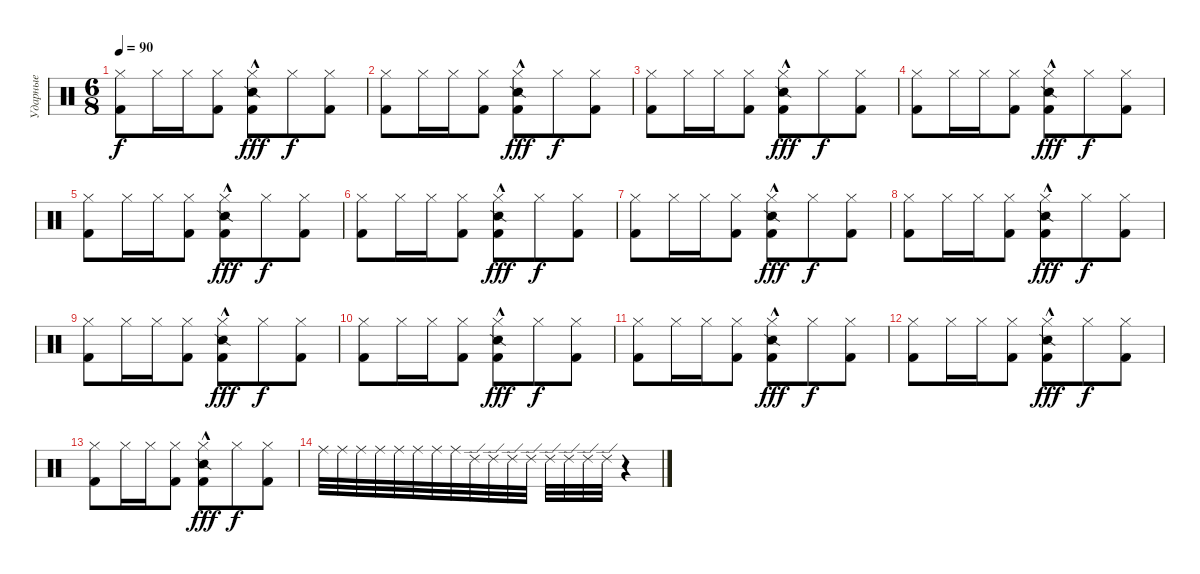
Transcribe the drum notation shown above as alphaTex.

\track ("Ударные" "Ударные") {instrument percussion}
\staff {score}
\articulation defaults
\ts (6 8)
\tempo 90
\clef neutral
\ks aminor
("Hi-Hat (closed)" "Kick (hit) 2").8{dy f} "Hi-Hat (closed)".16 "Hi-Hat (closed)".16 ("Hi-Hat (closed)" "Kick (hit) 2").8 ("Hi-Hat (closed)" "Snare (side stick) 2"{hac} "Kick (hit) 2").8{dy fff} "Hi-Hat (closed)".8{dy f} ("Hi-Hat (closed)" "Kick (hit) 2").8 |
("Hi-Hat (closed)" "Kick (hit) 2").8 "Hi-Hat (closed)".16 "Hi-Hat (closed)".16 ("Hi-Hat (closed)" "Kick (hit) 2").8 ("Hi-Hat (closed)" "Snare (side stick) 2"{hac} "Kick (hit) 2").8{dy fff} "Hi-Hat (closed)".8{dy f} ("Hi-Hat (closed)" "Kick (hit) 2").8 |
("Hi-Hat (closed)" "Kick (hit) 2").8 "Hi-Hat (closed)".16 "Hi-Hat (closed)".16 ("Hi-Hat (closed)" "Kick (hit) 2").8 ("Hi-Hat (closed)" "Snare (side stick) 2"{hac} "Kick (hit) 2").8{dy fff} "Hi-Hat (closed)".8{dy f} ("Hi-Hat (closed)" "Kick (hit) 2").8 |
("Hi-Hat (closed)" "Kick (hit) 2").8 "Hi-Hat (closed)".16 "Hi-Hat (closed)".16 ("Hi-Hat (closed)" "Kick (hit) 2").8 ("Hi-Hat (closed)" "Snare (side stick) 2"{hac} "Kick (hit) 2").8{dy fff} "Hi-Hat (closed)".8{dy f} ("Hi-Hat (closed)" "Kick (hit) 2").8 |
("Hi-Hat (closed)" "Kick (hit) 2").8 "Hi-Hat (closed)".16 "Hi-Hat (closed)".16 ("Hi-Hat (closed)" "Kick (hit) 2").8 ("Hi-Hat (closed)" "Snare (side stick) 2"{hac} "Kick (hit) 2").8{dy fff} "Hi-Hat (closed)".8{dy f} ("Hi-Hat (closed)" "Kick (hit) 2").8 |
("Hi-Hat (closed)" "Kick (hit) 2").8 "Hi-Hat (closed)".16 "Hi-Hat (closed)".16 ("Hi-Hat (closed)" "Kick (hit) 2").8 ("Hi-Hat (closed)" "Snare (side stick) 2"{hac} "Kick (hit) 2").8{dy fff} "Hi-Hat (closed)".8{dy f} ("Hi-Hat (closed)" "Kick (hit) 2").8 |
("Hi-Hat (closed)" "Kick (hit) 2").8 "Hi-Hat (closed)".16 "Hi-Hat (closed)".16 ("Hi-Hat (closed)" "Kick (hit) 2").8 ("Hi-Hat (closed)" "Snare (side stick) 2"{hac} "Kick (hit) 2").8{dy fff} "Hi-Hat (closed)".8{dy f} ("Hi-Hat (closed)" "Kick (hit) 2").8 |
("Hi-Hat (closed)" "Kick (hit) 2").8 "Hi-Hat (closed)".16 "Hi-Hat (closed)".16 ("Hi-Hat (closed)" "Kick (hit) 2").8 ("Hi-Hat (closed)" "Snare (side stick) 2"{hac} "Kick (hit) 2").8{dy fff} "Hi-Hat (closed)".8{dy f} ("Hi-Hat (closed)" "Kick (hit) 2").8 |
("Hi-Hat (closed)" "Kick (hit) 2").8 "Hi-Hat (closed)".16 "Hi-Hat (closed)".16 ("Hi-Hat (closed)" "Kick (hit) 2").8 ("Hi-Hat (closed)" "Snare (side stick) 2"{hac} "Kick (hit) 2").8{dy fff} "Hi-Hat (closed)".8{dy f} ("Hi-Hat (closed)" "Kick (hit) 2").8 |
("Hi-Hat (closed)" "Kick (hit) 2").8 "Hi-Hat (closed)".16 "Hi-Hat (closed)".16 ("Hi-Hat (closed)" "Kick (hit) 2").8 ("Hi-Hat (closed)" "Snare (side stick) 2"{hac} "Kick (hit) 2").8{dy fff} "Hi-Hat (closed)".8{dy f} ("Hi-Hat (closed)" "Kick (hit) 2").8 |
("Hi-Hat (closed)" "Kick (hit) 2").8 "Hi-Hat (closed)".16 "Hi-Hat (closed)".16 ("Hi-Hat (closed)" "Kick (hit) 2").8 ("Hi-Hat (closed)" "Snare (side stick) 2"{hac} "Kick (hit) 2").8{dy fff} "Hi-Hat (closed)".8{dy f} ("Hi-Hat (closed)" "Kick (hit) 2").8 |
("Hi-Hat (closed)" "Kick (hit) 2").8 "Hi-Hat (closed)".16 "Hi-Hat (closed)".16 ("Hi-Hat (closed)" "Kick (hit) 2").8 ("Hi-Hat (closed)" "Snare (side stick) 2"{hac} "Kick (hit) 2").8{dy fff} "Hi-Hat (closed)".8{dy f} ("Hi-Hat (closed)" "Kick (hit) 2").8 |
("Hi-Hat (closed)" "Kick (hit) 2").8 "Hi-Hat (closed)".16 "Hi-Hat (closed)".16 ("Hi-Hat (closed)" "Kick (hit) 2").8 ("Hi-Hat (closed)" "Snare (side stick) 2"{hac} "Kick (hit) 2").8{dy fff} "Hi-Hat (closed)".8{dy f} ("Hi-Hat (closed)" "Kick (hit) 2").8 |
"Ride (middle)".32 "Ride (middle)".32 "Ride (middle)".32 "Ride (middle)".32 "Ride (middle)".32 "Ride (middle)".32 "Ride (middle)".32 "Ride (middle)".32 "Ride (edge) 2".32 "Ride (edge) 2".32 "Ride (edge) 2".32 "Ride (edge) 2".32 "Ride (edge) 2".32 "Ride (edge) 2".32 "Ride (edge) 2".32 "Ride (edge) 2".32 r.4
